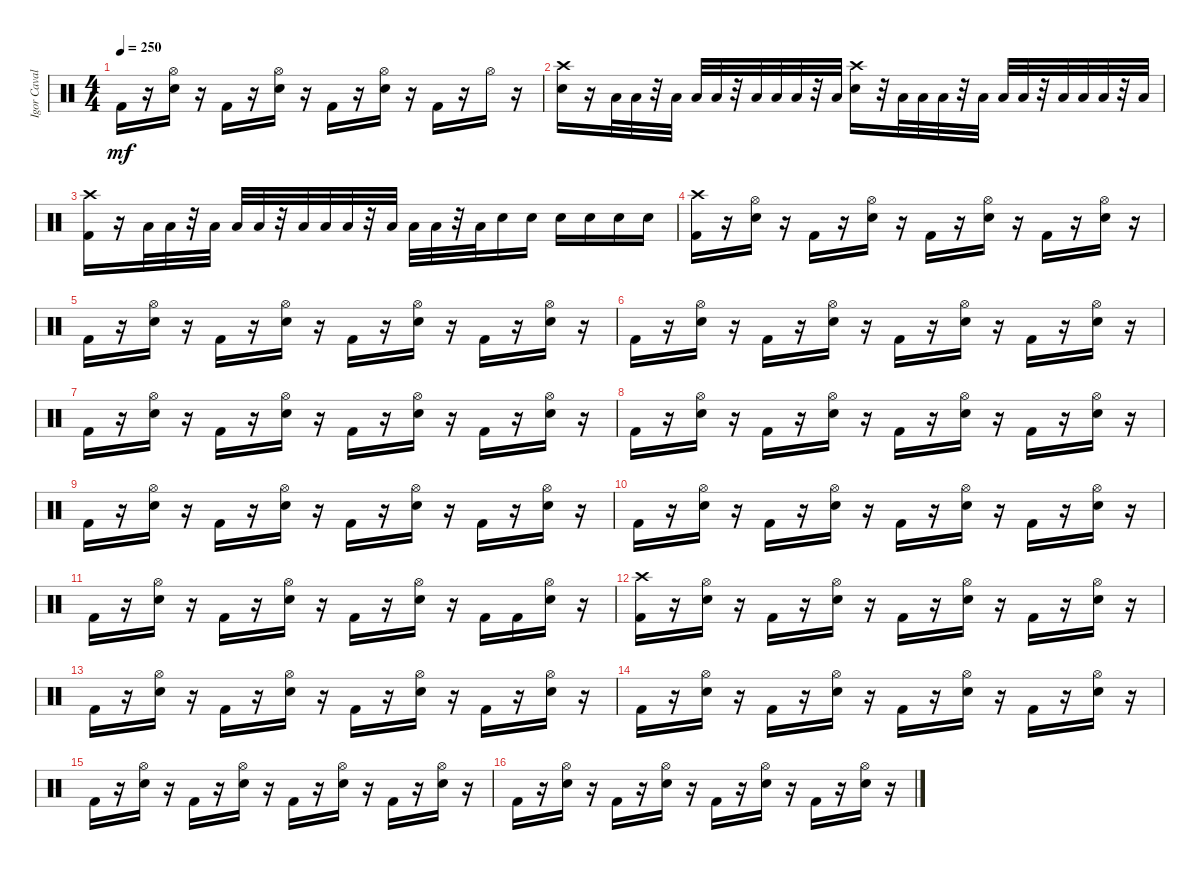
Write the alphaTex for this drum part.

\track ("Igor Cavalera" "Igor Caval") {instrument percussion}
\staff {score}
\articulation defaults
\ts (4 4)
\tempo 250
\clef neutral
\ks c "Kick (hit) 2".16{dy mf}
r.16 ("Snare (hit) 2" "Hi-Hat (open)").16 r.16 "Kick (hit) 2".16 r.16 ("Snare (hit) 2" "Hi-Hat (open)").16 r.16 "Kick (hit) 2".16 r.16 ("Snare (hit) 2" "Hi-Hat (open)").16 r.16 "Kick (hit) 2".16 r.16 "Hi-Hat (open)".16 r.16 |
("Crash high (hit)" "Snare (hit) 2").16 r.16 "Low Tom (hit)".32 "Low Tom (hit)".32 r.32 "Low Tom (hit)".32 "Low Tom (hit)".32 "Low Tom (hit)".32 r.32 "Low Floor Tom (hit)".32 "Low Floor Tom (hit)".32 "Low Floor Tom (hit)".32 r.32 "Low Floor Tom (hit)".32 ("Snare (hit) 2" "Crash high (hit)").16 r.32 "Low Floor Tom (hit)".32 "Low Floor Tom (hit)".32 "Low Floor Tom (hit)".32 r.32 "Low Floor Tom (hit)".32 "Low Floor Tom (hit)".32 "Low Floor Tom (hit)".32 r.32 "Low Tom (hit)".32 "Low Tom (hit)".32 "Low Tom (hit)".32 r.32 "Low Tom (hit)".32 |
("Kick (hit) 2" "Crash high (hit)").16 r.16 "Low Tom (hit)".32 "Low Tom (hit)".32 r.32 "Low Tom (hit)".32 "Low Tom (hit)".32 "Low Tom (hit)".32 r.32 "Low Tom (hit)".32 "Low Floor Tom (hit)".32 "Low Floor Tom (hit)".32 r.32 "Low Floor Tom (hit)".32 "Low Floor Tom (hit)".32 "Low Floor Tom (hit)".32 r.32 "Low Floor Tom (hit)".32 "Snare (hit) 2".16 "Snare (hit) 2".16 "Snare (hit) 2".16 "Snare (hit) 2".16 "Snare (hit) 2".16 "Snare (hit) 2".16 |
("Kick (hit) 2" "Crash high (hit)").16 r.16 ("Hi-Hat (open)" "Snare (hit) 2").16 r.16 "Kick (hit) 2".16 r.16 ("Hi-Hat (open)" "Snare (hit) 2").16 r.16 "Kick (hit) 2".16 r.16 ("Hi-Hat (open)" "Snare (hit) 2").16 r.16 "Kick (hit) 2".16 r.16 ("Hi-Hat (open)" "Snare (hit) 2").16 r.16 |
"Kick (hit) 2".16 r.16 ("Hi-Hat (open)" "Snare (hit) 2").16 r.16 "Kick (hit) 2".16 r.16 ("Hi-Hat (open)" "Snare (hit) 2").16 r.16 "Kick (hit) 2".16 r.16 ("Hi-Hat (open)" "Snare (hit) 2").16 r.16 "Kick (hit) 2".16 r.16 ("Hi-Hat (open)" "Snare (hit) 2").16 r.16 |
"Kick (hit) 2".16 r.16 ("Hi-Hat (open)" "Snare (hit) 2").16 r.16 "Kick (hit) 2".16 r.16 ("Hi-Hat (open)" "Snare (hit) 2").16 r.16 "Kick (hit) 2".16 r.16 ("Hi-Hat (open)" "Snare (hit) 2").16 r.16 "Kick (hit) 2".16 r.16 ("Hi-Hat (open)" "Snare (hit) 2").16 r.16 |
"Kick (hit) 2".16 r.16 ("Hi-Hat (open)" "Snare (hit) 2").16 r.16 "Kick (hit) 2".16 r.16 ("Hi-Hat (open)" "Snare (hit) 2").16 r.16 "Kick (hit) 2".16 r.16 ("Hi-Hat (open)" "Snare (hit) 2").16 r.16 "Kick (hit) 2".16 r.16 ("Hi-Hat (open)" "Snare (hit) 2").16 r.16 |
"Kick (hit) 2".16 r.16 ("Hi-Hat (open)" "Snare (hit) 2").16 r.16 "Kick (hit) 2".16 r.16 ("Hi-Hat (open)" "Snare (hit) 2").16 r.16 "Kick (hit) 2".16 r.16 ("Hi-Hat (open)" "Snare (hit) 2").16 r.16 "Kick (hit) 2".16 r.16 ("Hi-Hat (open)" "Snare (hit) 2").16 r.16 |
"Kick (hit) 2".16 r.16 ("Hi-Hat (open)" "Snare (hit) 2").16 r.16 "Kick (hit) 2".16 r.16 ("Hi-Hat (open)" "Snare (hit) 2").16 r.16 "Kick (hit) 2".16 r.16 ("Hi-Hat (open)" "Snare (hit) 2").16 r.16 "Kick (hit) 2".16 r.16 ("Hi-Hat (open)" "Snare (hit) 2").16 r.16 |
"Kick (hit) 2".16 r.16 ("Hi-Hat (open)" "Snare (hit) 2").16 r.16 "Kick (hit) 2".16 r.16 ("Hi-Hat (open)" "Snare (hit) 2").16 r.16 "Kick (hit) 2".16 r.16 ("Hi-Hat (open)" "Snare (hit) 2").16 r.16 "Kick (hit) 2".16 r.16 ("Hi-Hat (open)" "Snare (hit) 2").16 r.16 |
"Kick (hit) 2".16 r.16 ("Hi-Hat (open)" "Snare (hit) 2").16 r.16 "Kick (hit) 2".16 r.16 ("Hi-Hat (open)" "Snare (hit) 2").16 r.16 "Kick (hit) 2".16 r.16 ("Hi-Hat (open)" "Snare (hit) 2").16 r.16 "Kick (hit) 2".16 "Kick (hit) 2".16 ("Hi-Hat (open)" "Snare (hit) 2").16 r.16 |
("Crash high (hit)" "Kick (hit) 2").16 r.16 ("Snare (hit) 2" "Hi-Hat (open)").16 r.16 "Kick (hit) 2".16 r.16 ("Snare (hit) 2" "Hi-Hat (open)").16 r.16 "Kick (hit) 2".16 r.16 ("Snare (hit) 2" "Hi-Hat (open)").16 r.16 "Kick (hit) 2".16 r.16 ("Snare (hit) 2" "Hi-Hat (open)").16 r.16 |
"Kick (hit) 2".16 r.16 ("Snare (hit) 2" "Hi-Hat (open)").16 r.16 "Kick (hit) 2".16 r.16 ("Snare (hit) 2" "Hi-Hat (open)").16 r.16 "Kick (hit) 2".16 r.16 ("Snare (hit) 2" "Hi-Hat (open)").16 r.16 "Kick (hit) 2".16 r.16 ("Snare (hit) 2" "Hi-Hat (open)").16 r.16 |
"Kick (hit) 2".16 r.16 ("Snare (hit) 2" "Hi-Hat (open)").16 r.16 "Kick (hit) 2".16 r.16 ("Snare (hit) 2" "Hi-Hat (open)").16 r.16 "Kick (hit) 2".16 r.16 ("Snare (hit) 2" "Hi-Hat (open)").16 r.16 "Kick (hit) 2".16 r.16 ("Snare (hit) 2" "Hi-Hat (open)").16 r.16 |
"Kick (hit) 2".16 r.16 ("Snare (hit) 2" "Hi-Hat (open)").16 r.16 "Kick (hit) 2".16 r.16 ("Snare (hit) 2" "Hi-Hat (open)").16 r.16 "Kick (hit) 2".16 r.16 ("Snare (hit) 2" "Hi-Hat (open)").16 r.16 "Kick (hit) 2".16 r.16 ("Snare (hit) 2" "Hi-Hat (open)").16 r.16 |
"Kick (hit) 2".16 r.16 ("Snare (hit) 2" "Hi-Hat (open)").16 r.16 "Kick (hit) 2".16 r.16 ("Snare (hit) 2" "Hi-Hat (open)").16 r.16 "Kick (hit) 2".16 r.16 ("Snare (hit) 2" "Hi-Hat (open)").16 r.16 "Kick (hit) 2".16 r.16 ("Snare (hit) 2" "Hi-Hat (open)").16 r.16
